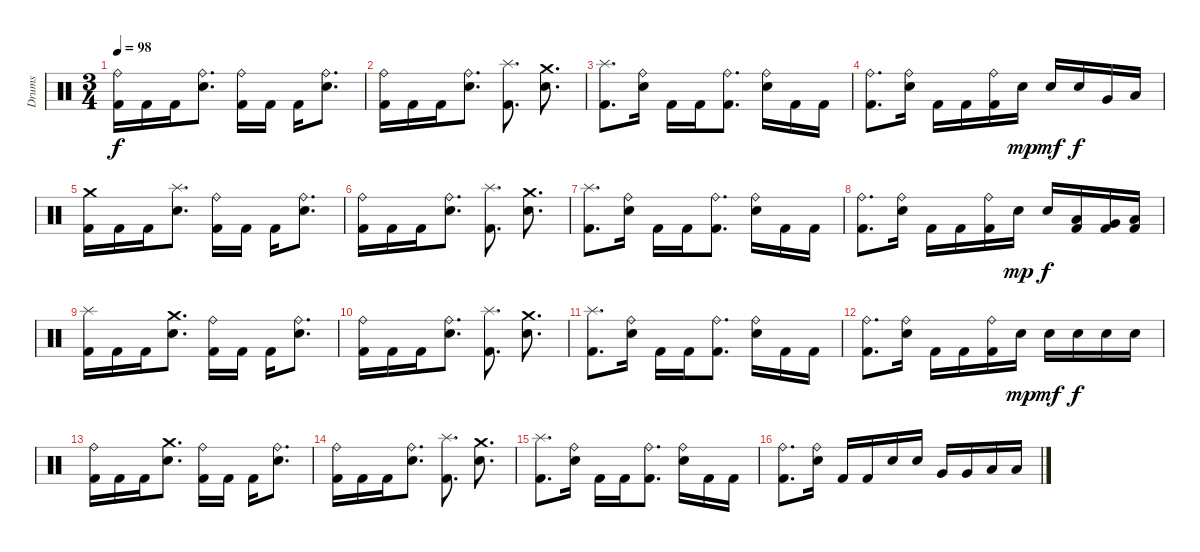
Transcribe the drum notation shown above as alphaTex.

\track ("Drums" "Drums") {instrument percussion}
\staff {score}
\articulation defaults
\ts (3 4)
\tempo 98
\clef neutral
\ks c
("Ride (bell)" "Kick (hit) 2").16{dy f} "Kick (hit) 2".16 "Kick (hit) 2".16 ("Ride (bell)" "Electric Snare (hit)").8{d} ("Ride (bell)" "Kick (hit) 2").16 "Kick (hit) 2".16 "Kick (hit) 2".16 ("Ride (bell)" "Electric Snare (hit)").8{d} |
("Ride (bell)" "Kick (hit) 2").16 "Kick (hit) 2".16 "Kick (hit) 2".16 ("Ride (bell)" "Electric Snare (hit)").8{d} ("Splash (hit)" "Kick (hit) 2").8{d} ("Crash medium (hit)" "Electric Snare (hit)").8{d} |
("Splash (hit)" "Kick (hit) 2").8{d} ("Ride (bell)" "Electric Snare (hit)").16 "Kick (hit) 2".16 "Kick (hit) 2".16 ("Ride (bell)" "Kick (hit) 2").8{d} ("Ride (bell)" "Electric Snare (hit)").16 "Kick (hit) 2".16 "Kick (hit) 2".16 |
("Ride (bell)" "Kick (hit) 2").8{d} ("Ride (bell)" "Electric Snare (hit)").16 "Kick (hit) 2".16 "Kick (hit) 2".16 ("Ride (bell)" "Kick (hit) 2").16 "Electric Snare (hit)".16{dy mp} "Electric Snare (hit)".16{dy mf} "Electric Snare (hit)".16{dy f} "Very Low Tom (hit)".16 "Low Floor Tom (hit)".16 |
("Crash medium (hit)" "Kick (hit) 2").16 "Kick (hit) 2".16 "Kick (hit) 2".16 ("Splash (hit)" "Electric Snare (hit)").8{d} ("Ride (bell)" "Kick (hit) 2").16 "Kick (hit) 2".16 "Kick (hit) 2".16 ("Ride (bell)" "Electric Snare (hit)").8{d} |
("Ride (bell)" "Kick (hit) 2").16 "Kick (hit) 2".16 "Kick (hit) 2".16 ("Ride (bell)" "Electric Snare (hit)").8{d} ("Splash (hit)" "Kick (hit) 2").8{d} ("Crash medium (hit)" "Electric Snare (hit)").8{d} |
("Splash (hit)" "Kick (hit) 2").8{d} ("Ride (bell)" "Electric Snare (hit)").16 "Kick (hit) 2".16 "Kick (hit) 2".16 ("Ride (bell)" "Kick (hit) 2").8{d} ("Ride (bell)" "Electric Snare (hit)").16 "Kick (hit) 2".16 "Kick (hit) 2".16 |
("Ride (bell)" "Kick (hit) 2").8{d} ("Ride (bell)" "Electric Snare (hit)").16 "Kick (hit) 2".16 "Kick (hit) 2".16 ("Ride (bell)" "Kick (hit) 2").16 "Electric Snare (hit)".16{dy mp} "Electric Snare (hit)".16{dy f} ("Low Tom (hit)" "Kick (hit) 2").16 ("Very Low Tom (hit)" "Kick (hit) 2").16 ("Low Floor Tom (hit)" "Kick (hit) 2").16 |
("Splash (hit)" "Kick (hit) 2").16 "Kick (hit) 2".16 "Kick (hit) 2".16 ("Crash medium (hit)" "Electric Snare (hit)").8{d} ("Ride (bell)" "Kick (hit) 2").16 "Kick (hit) 2".16 "Kick (hit) 2".16 ("Ride (bell)" "Electric Snare (hit)").8{d} |
("Ride (bell)" "Kick (hit) 2").16 "Kick (hit) 2".16 "Kick (hit) 2".16 ("Ride (bell)" "Electric Snare (hit)").8{d} ("Splash (hit)" "Kick (hit) 2").8{d} ("Crash medium (hit)" "Electric Snare (hit)").8{d} |
("Splash (hit)" "Kick (hit) 2").8{d} ("Ride (bell)" "Electric Snare (hit)").16 "Kick (hit) 2".16 "Kick (hit) 2".16 ("Ride (bell)" "Kick (hit) 2").8{d} ("Ride (bell)" "Electric Snare (hit)").16 "Kick (hit) 2".16 "Kick (hit) 2".16 |
("Ride (bell)" "Kick (hit) 2").8{d} ("Ride (bell)" "Electric Snare (hit)").16 "Kick (hit) 2".16 "Kick (hit) 2".16 ("Ride (bell)" "Kick (hit) 2").16 "Electric Snare (hit)".16{dy mp} "Electric Snare (hit)".16{dy mf} "Electric Snare (hit)".16{dy f} "Electric Snare (hit)".16 "Electric Snare (hit)".16 |
("Ride (bell)" "Kick (hit) 2").16 "Kick (hit) 2".16 "Kick (hit) 2".16 ("Crash medium (hit)" "Electric Snare (hit)").8{d} ("Ride (bell)" "Kick (hit) 2").16 "Kick (hit) 2".16 "Kick (hit) 2".16 ("Ride (bell)" "Electric Snare (hit)").8{d} |
("Ride (bell)" "Kick (hit) 2").16 "Kick (hit) 2".16 "Kick (hit) 2".16 ("Ride (bell)" "Electric Snare (hit)").8{d} ("Splash (hit)" "Kick (hit) 2").8{d} ("Crash medium (hit)" "Electric Snare (hit)").8{d} |
("Splash (hit)" "Kick (hit) 2").8{d} ("Ride (bell)" "Electric Snare (hit)").16 "Kick (hit) 2".16 "Kick (hit) 2".16 ("Ride (bell)" "Kick (hit) 2").8{d} ("Ride (bell)" "Electric Snare (hit)").16 "Kick (hit) 2".16 "Kick (hit) 2".16 |
("Ride (bell)" "Kick (hit) 2").8{d} ("Ride (bell)" "Electric Snare (hit)").16 "Kick (hit) 2".16 "Kick (hit) 2".16 "Electric Snare (hit)".16 "Electric Snare (hit)".16 "Very Low Tom (hit)".16 "Very Low Tom (hit)".16 "Low Floor Tom (hit)".16 "Low Floor Tom (hit)".16
